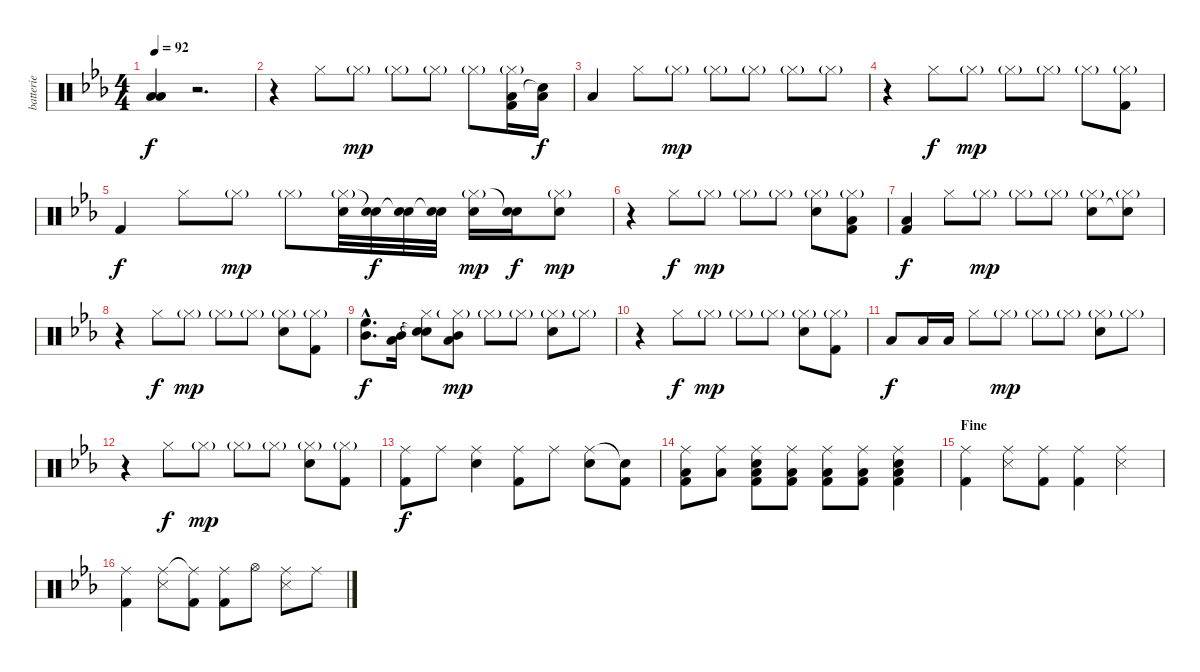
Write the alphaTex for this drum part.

\track ("batterie" "batterie") {instrument percussion}
\staff {score}
\articulation defaults
\ts (4 4)
\tempo 92
\clef neutral
\ks eb
("Low Floor Tom (hit)" "Low Tom (hit)").4{dy f} r.2{d} |
r.4 "Hi-Hat (closed)".8 "Hi-Hat (closed)"{g}.8{dy mp} "Hi-Hat (closed)"{g}.8 "Hi-Hat (closed)"{g}.8 "Hi-Hat (closed)"{g}.8 ("Kick (hit) 2" "Low Floor Tom (hit)" "Hi-Hat (closed)"{g}).16 ("Low Tom (hit)" "Snare (hit)"{t}).16{dy f} |
"Low Floor Tom (hit)".4 "Hi-Hat (closed)".8 "Hi-Hat (closed)"{g}.8{dy mp} "Hi-Hat (closed)"{g}.8 "Hi-Hat (closed)"{g}.8 "Hi-Hat (closed)"{g}.8 "Hi-Hat (closed)"{g}.8 |
r.4 "Hi-Hat (closed)".8{dy f} "Hi-Hat (closed)"{g}.8{dy mp} "Hi-Hat (closed)"{g}.8 "Hi-Hat (closed)"{g}.8 "Hi-Hat (closed)"{g}.8 ("Kick (hit) 2" "Hi-Hat (closed)"{g}).8 |
"Kick (hit) 2".4{dy f} "Hi-Hat (closed)".8 "Hi-Hat (closed)"{g}.8{dy mp} "Hi-Hat (closed)"{g}.8 ("Snare (hit) 2" "Hi-Hat (closed)"{g}).32 ("Snare (hit) 2" "Snare (hit)"{t}).32{dy f} ("Snare (hit) 2" "Snare (hit)"{t}).32 ("Snare (hit) 2" "Snare (hit)"{t}).32 ("Snare (hit) 2" "Hi-Hat (closed)"{g}).16{dy mp} ("Snare (hit) 2" "Snare (hit)"{t}).16{dy f} ("Snare (hit) 2" "Hi-Hat (closed)"{g}).8{dy mp} |
r.4 "Hi-Hat (closed)".8{dy f} "Hi-Hat (closed)"{g}.8{dy mp} "Hi-Hat (closed)"{g}.8 "Hi-Hat (closed)"{g}.8 ("Snare (hit) 2" "Hi-Hat (closed)"{g}).8 ("Low Tom (hit)" "Kick (hit) 2" "Hi-Hat (closed)"{g}).8 |
("Kick (hit) 2" "Low Floor Tom (hit)").4{dy f} "Hi-Hat (closed)".8 "Hi-Hat (closed)"{g}.8{dy mp} "Hi-Hat (closed)"{g}.8 "Hi-Hat (closed)"{g}.8 ("Snare (hit) 2" "Hi-Hat (closed)"{g}).8 ("Snare (hit) 2"{t} "Hi-Hat (closed)"{g}).8 |
r.4 "Hi-Hat (closed)".8{dy f} "Hi-Hat (closed)"{g}.8{dy mp} "Hi-Hat (closed)"{g}.8 "Hi-Hat (closed)"{g}.8 ("Snare (hit) 2" "Hi-Hat (closed)"{g}).8 ("Kick (hit) 2" "Hi-Hat (closed)"{g}).8 |
("High Floor Tom (hit)"{hac} "Mid Tom (hit)"{hac}).8{d dy f} ("Mid Tom (hit)" "Low Tom (hit)").16 ("Snare (hit)"{t} "Snare (hit)"{t} "Hi-Hat (closed)").8 ("Mid Tom (hit)" "Low Floor Tom (hit)" "Hi-Hat (closed)"{g}).8{dy mp} "Hi-Hat (closed)"{g}.8 "Hi-Hat (closed)"{g}.8 ("Snare (hit) 2" "Hi-Hat (closed)"{g}).8 "Hi-Hat (closed)"{g}.8 |
r.4 "Hi-Hat (closed)".8{dy f} "Hi-Hat (closed)"{g}.8{dy mp} "Hi-Hat (closed)"{g}.8 "Hi-Hat (closed)"{g}.8 ("Snare (hit) 2" "Hi-Hat (closed)"{g}).8 ("Kick (hit) 2" "Hi-Hat (closed)"{g}).8 |
"Low Floor Tom (hit)".8{dy f} "Low Floor Tom (hit)".16 "Low Floor Tom (hit)".16 "Hi-Hat (closed)".8 "Hi-Hat (closed)"{g}.8{dy mp} "Hi-Hat (closed)"{g}.8 "Hi-Hat (closed)"{g}.8 ("Snare (hit) 2" "Hi-Hat (closed)"{g}).8 "Hi-Hat (closed)"{g}.8 |
r.4 "Hi-Hat (closed)".8{dy f} "Hi-Hat (closed)"{g}.8{dy mp} "Hi-Hat (closed)"{g}.8 "Hi-Hat (closed)"{g}.8 ("Snare (hit) 2" "Hi-Hat (closed)"{g}).8 ("Kick (hit) 2" "Hi-Hat (closed)"{g}).8 |
("Ride (middle)" "Kick (hit) 2").8{dy f} "Ride (middle)".8 ("Ride (middle)" "Snare (hit) 2").4 ("Ride (middle)" "Kick (hit) 2").8 "Ride (middle)".8 ("Ride (middle)" "Snare (hit) 2").8 ("Snare (hit)"{t} "Kick (hit) 2").8 |
("Kick (hit) 2" "Low Tom (hit)" "Ride (middle)").8 ("Low Tom (hit)" "Ride (middle)").8 ("Kick (hit) 2" "Low Floor Tom (hit)" "Ride (middle)" "Snare (hit) 2").8 ("Kick (hit) 2" "Low Floor Tom (hit)" "Ride (middle)").8 ("Kick (hit) 2" "Low Floor Tom (hit)" "Ride (middle)").8 ("Kick (hit) 2" "Low Floor Tom (hit)" "Ride (middle)").8 ("Kick (hit) 2" "Low Floor Tom (hit)" "Ride (middle)" "Snare (hit) 2").4 |
\section ("" "Fine")
("Ride (middle)" "Kick (hit) 2").4 ("Ride (middle)" "Snare (side stick) 3").8 ("Ride (middle)" "Kick (hit) 2").8 ("Ride (middle)" "Kick (hit) 2").4 ("Ride (middle)" "Snare (side stick) 3").4 |
("Ride (middle)" "Kick (hit) 2").4 ("Ride (middle)" "Snare (side stick) 3").8 ("Ride (middle)"{t} "Kick (hit) 2").8 ("Ride (middle)" "Kick (hit) 2").8 "Hi-Hat (open)".8 ("Ride (middle)" "Snare (side stick) 3").8 "Ride (middle)".8
